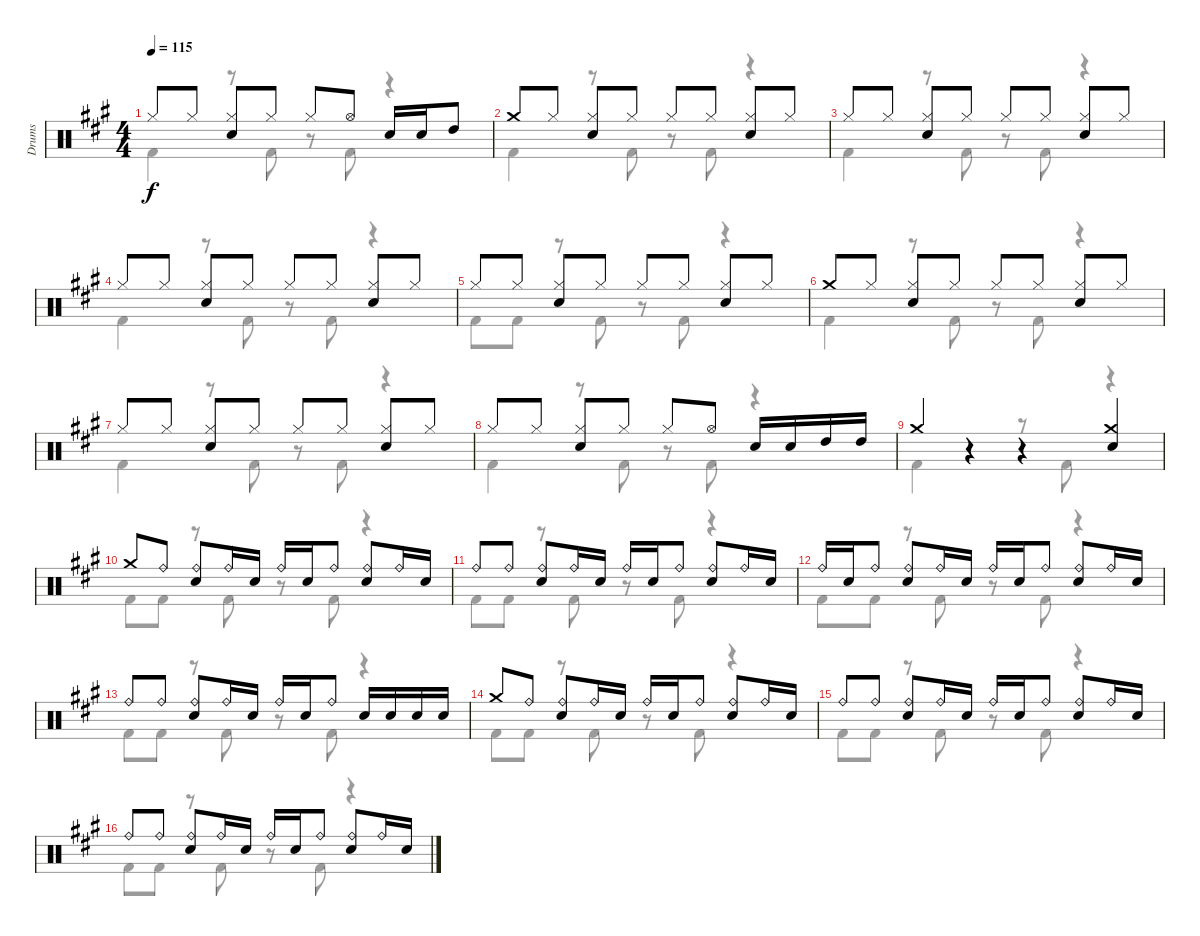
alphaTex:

\track ("Drums" "Drums") {instrument percussion}
\staff {score}
\articulation defaults
\voice
\ts (4 4)
\tempo 115
\clef neutral
\ks a "Hi-Hat (closed)".8{dy f} "Hi-Hat (closed)".8
("Hi-Hat (closed)" "Electric Snare (hit)").8 "Hi-Hat (closed)".8 "Hi-Hat (closed)".8 "Hi-Hat (open)".8 "Electric Snare (hit)".16 "Electric Snare (hit)".16 "High Tom (hit)".8 |
"Crash medium (hit)".8 "Hi-Hat (closed)".8 ("Hi-Hat (closed)" "Electric Snare (hit)").8 "Hi-Hat (closed)".8 "Hi-Hat (closed)".8 "Hi-Hat (closed)".8 ("Hi-Hat (closed)" "Electric Snare (hit)").8 "Hi-Hat (closed)".8 |
"Hi-Hat (closed)".8 "Hi-Hat (closed)".8 ("Hi-Hat (closed)" "Electric Snare (hit)").8 "Hi-Hat (closed)".8 "Hi-Hat (closed)".8 "Hi-Hat (closed)".8 ("Hi-Hat (closed)" "Electric Snare (hit)").8 "Hi-Hat (closed)".8 |
"Hi-Hat (closed)".8 "Hi-Hat (closed)".8 ("Hi-Hat (closed)" "Electric Snare (hit)").8 "Hi-Hat (closed)".8 "Hi-Hat (closed)".8 "Hi-Hat (closed)".8 ("Hi-Hat (closed)" "Electric Snare (hit)").8 "Hi-Hat (closed)".8 |
"Hi-Hat (closed)".8 "Hi-Hat (closed)".8 ("Hi-Hat (closed)" "Electric Snare (hit)").8 "Hi-Hat (closed)".8 "Hi-Hat (closed)".8 "Hi-Hat (closed)".8 ("Hi-Hat (closed)" "Electric Snare (hit)").8 "Hi-Hat (closed)".8 |
"Crash medium (hit)".8 "Hi-Hat (closed)".8 ("Hi-Hat (closed)" "Electric Snare (hit)").8 "Hi-Hat (closed)".8 "Hi-Hat (closed)".8 "Hi-Hat (closed)".8 ("Hi-Hat (closed)" "Electric Snare (hit)").8 "Hi-Hat (closed)".8 |
"Hi-Hat (closed)".8 "Hi-Hat (closed)".8 ("Hi-Hat (closed)" "Electric Snare (hit)").8 "Hi-Hat (closed)".8 "Hi-Hat (closed)".8 "Hi-Hat (closed)".8 ("Hi-Hat (closed)" "Electric Snare (hit)").8 "Hi-Hat (closed)".8 |
"Hi-Hat (closed)".8 "Hi-Hat (closed)".8 ("Hi-Hat (closed)" "Electric Snare (hit)").8 "Hi-Hat (closed)".8 "Hi-Hat (closed)".8 "Hi-Hat (open)".8 "Electric Snare (hit)".16 "Electric Snare (hit)".16 "High Tom (hit)".16 "High Tom (hit)".16 |
"Crash medium (hit)".4 r.4 r.4 ("Crash medium (hit)" "Electric Snare (hit)").4 |
"Crash medium (hit)".8 "Ride (bell)".8 ("Ride (bell)" "Electric Snare (hit)").8 "Ride (bell)".16 "Electric Snare (hit)".16 "Ride (bell)".16 "Electric Snare (hit)".16 "Ride (bell)".8 ("Ride (bell)" "Electric Snare (hit)").8 "Ride (bell)".16 "Electric Snare (hit)".16 |
"Ride (bell)".8 "Ride (bell)".8 ("Ride (bell)" "Electric Snare (hit)").8 "Ride (bell)".16 "Electric Snare (hit)".16 "Ride (bell)".16 "Electric Snare (hit)".16 "Ride (bell)".8 ("Ride (bell)" "Electric Snare (hit)").8 "Ride (bell)".16 "Electric Snare (hit)".16 |
"Ride (bell)".16 "Electric Snare (hit)".16 "Ride (bell)".8 ("Ride (bell)" "Electric Snare (hit)").8 "Ride (bell)".16 "Electric Snare (hit)".16 "Ride (bell)".16 "Electric Snare (hit)".16 "Ride (bell)".8 ("Ride (bell)" "Electric Snare (hit)").8 "Ride (bell)".16 "Electric Snare (hit)".16 |
"Ride (bell)".8 "Ride (bell)".8 ("Ride (bell)" "Electric Snare (hit)").8 "Ride (bell)".16 "Electric Snare (hit)".16 "Ride (bell)".16 "Electric Snare (hit)".16 "Ride (bell)".8 "Electric Snare (hit)".16 "Electric Snare (hit)".16 "Electric Snare (hit)".16 "Electric Snare (hit)".16 |
"Crash medium (hit)".8 "Ride (bell)".8 ("Ride (bell)" "Electric Snare (hit)").8 "Ride (bell)".16 "Electric Snare (hit)".16 "Ride (bell)".16 "Electric Snare (hit)".16 "Ride (bell)".8 ("Ride (bell)" "Electric Snare (hit)").8 "Ride (bell)".16 "Electric Snare (hit)".16 |
"Ride (bell)".8 "Ride (bell)".8 ("Ride (bell)" "Electric Snare (hit)").8 "Ride (bell)".16 "Electric Snare (hit)".16 "Ride (bell)".16 "Electric Snare (hit)".16 "Ride (bell)".8 ("Ride (bell)" "Electric Snare (hit)").8 "Ride (bell)".16 "Electric Snare (hit)".16 |
"Ride (bell)".8 "Ride (bell)".8 ("Ride (bell)" "Electric Snare (hit)").8 "Ride (bell)".16 "Electric Snare (hit)".16 "Ride (bell)".16 "Electric Snare (hit)".16 "Ride (bell)".8 ("Ride (bell)" "Electric Snare (hit)").8 "Ride (bell)".16 "Electric Snare (hit)".16
\voice
\clef neutral
\ottava regular
\simile none
\ks a "Kick (hit) 2".4{dy f}
r.8 "Kick (hit) 2".8 r.8 "Kick (hit) 2".8 r.4 |
"Kick (hit) 2".4 r.8 "Kick (hit) 2".8 r.8 "Kick (hit) 2".8 r.4 |
"Kick (hit) 2".4 r.8 "Kick (hit) 2".8 r.8 "Kick (hit) 2".8 r.4 |
"Kick (hit) 2".4 r.8 "Kick (hit) 2".8 r.8 "Kick (hit) 2".8 r.4 |
"Kick (hit) 2".8 "Kick (hit) 2".8 r.8 "Kick (hit) 2".8 r.8 "Kick (hit) 2".8 r.4 |
"Kick (hit) 2".4 r.8 "Kick (hit) 2".8 r.8 "Kick (hit) 2".8 r.4 |
"Kick (hit) 2".4 r.8 "Kick (hit) 2".8 r.8 "Kick (hit) 2".8 r.4 |
"Kick (hit) 2".4 r.8 "Kick (hit) 2".8 r.8 "Kick (hit) 2".8 r.4 |
"Kick (hit) 2".4 r.4 r.8 "Kick (hit) 2".8 r.4 |
"Kick (hit) 2".8 "Kick (hit) 2".8 r.8 "Kick (hit) 2".8 r.8 "Kick (hit) 2".8 r.4 |
"Kick (hit) 2".8 "Kick (hit) 2".8 r.8 "Kick (hit) 2".8 r.8 "Kick (hit) 2".8 r.4 |
"Kick (hit) 2".8 "Kick (hit) 2".8 r.8 "Kick (hit) 2".8 r.8 "Kick (hit) 2".8 r.4 |
"Kick (hit) 2".8 "Kick (hit) 2".8 r.8 "Kick (hit) 2".8 r.8 "Kick (hit) 2".8 r.4 |
"Kick (hit) 2".8 "Kick (hit) 2".8 r.8 "Kick (hit) 2".8 r.8 "Kick (hit) 2".8 r.4 |
"Kick (hit) 2".8 "Kick (hit) 2".8 r.8 "Kick (hit) 2".8 r.8 "Kick (hit) 2".8 r.4 |
"Kick (hit) 2".8 "Kick (hit) 2".8 r.8 "Kick (hit) 2".8 r.8 "Kick (hit) 2".8 r.4
